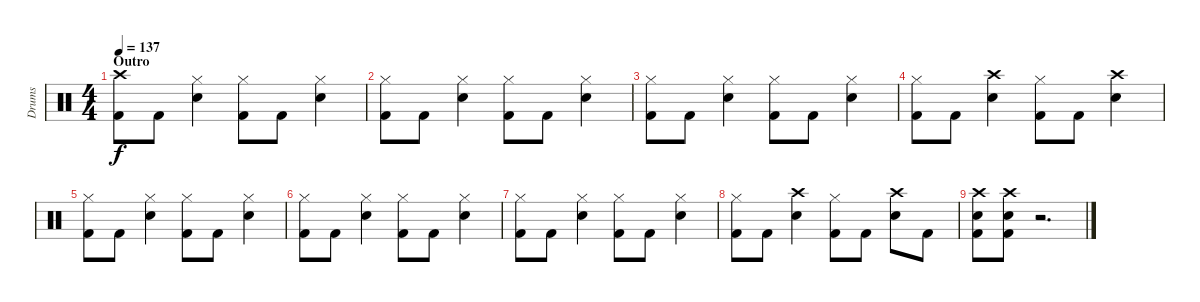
\track ("Drums" "Drums") {instrument percussion}
\staff {score}
\articulation defaults
\ts (4 4)
\section ("" "Outro")
\tempo 137
\clef neutral
\ks c
("Crash high (hit)" "Kick (hit) 2").8{dy f} "Kick (hit) 2".8 ("Hi-Hat (closed)" "Electric Snare (hit)").4 ("Hi-Hat (closed)" "Kick (hit) 2").8 "Kick (hit) 2".8 ("Hi-Hat (closed)" "Electric Snare (hit)").4 |
("Hi-Hat (closed)" "Kick (hit) 2").8 "Kick (hit) 2".8 ("Hi-Hat (closed)" "Electric Snare (hit)").4 ("Hi-Hat (closed)" "Kick (hit) 2").8 "Kick (hit) 2".8 ("Hi-Hat (closed)" "Electric Snare (hit)").4 |
("Hi-Hat (closed)" "Kick (hit) 2").8 "Kick (hit) 2".8 ("Hi-Hat (closed)" "Electric Snare (hit)").4 ("Hi-Hat (closed)" "Kick (hit) 2").8 "Kick (hit) 2".8 ("Hi-Hat (closed)" "Electric Snare (hit)").4 |
("Hi-Hat (closed)" "Kick (hit) 2").8 "Kick (hit) 2".8 ("Crash high (hit)" "Electric Snare (hit)").4 ("Hi-Hat (closed)" "Kick (hit) 2").8 "Kick (hit) 2".8 ("Crash high (hit)" "Electric Snare (hit)").4 |
("Hi-Hat (closed)" "Kick (hit) 2").8 "Kick (hit) 2".8 ("Hi-Hat (closed)" "Electric Snare (hit)").4 ("Hi-Hat (closed)" "Kick (hit) 2").8 "Kick (hit) 2".8 ("Hi-Hat (closed)" "Electric Snare (hit)").4 |
("Hi-Hat (closed)" "Kick (hit) 2").8 "Kick (hit) 2".8 ("Hi-Hat (closed)" "Electric Snare (hit)").4 ("Hi-Hat (closed)" "Kick (hit) 2").8 "Kick (hit) 2".8 ("Hi-Hat (closed)" "Electric Snare (hit)").4 |
("Hi-Hat (closed)" "Kick (hit) 2").8 "Kick (hit) 2".8 ("Hi-Hat (closed)" "Electric Snare (hit)").4 ("Hi-Hat (closed)" "Kick (hit) 2").8 "Kick (hit) 2".8 ("Hi-Hat (closed)" "Electric Snare (hit)").4 |
("Hi-Hat (closed)" "Kick (hit) 2").8 "Kick (hit) 2".8 ("Crash high (hit)" "Electric Snare (hit)").4 ("Hi-Hat (closed)" "Kick (hit) 2").8 "Kick (hit) 2".8 ("Crash high (hit)" "Electric Snare (hit)").8 "Kick (hit) 2".8 |
("Crash high (hit)" "Electric Snare (hit)" "Kick (hit) 2").8 ("Crash high (hit)" "Electric Snare (hit)" "Kick (hit) 2").8 r.2{d}
